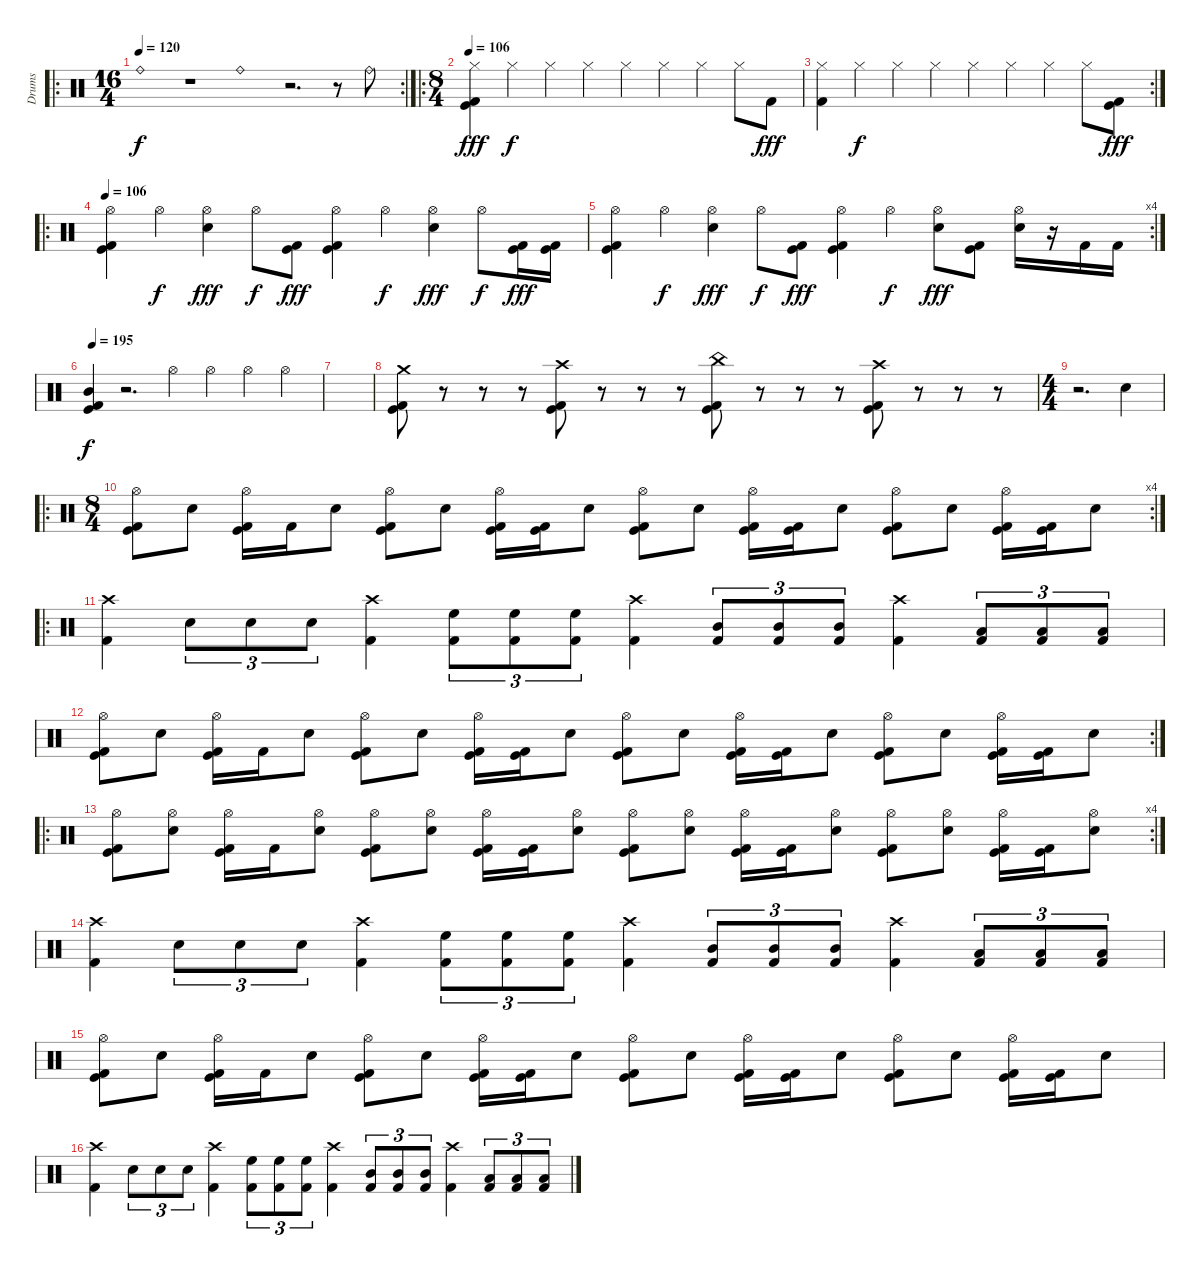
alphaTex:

\track ("Drums" "Drums") {instrument percussion}
\staff {score}
\articulation defaults
\ro
\rc 2
\ts (16 4)
\tempo 120
\tempo 106
\tempo 120
\clef neutral
\ks c "Ride (bell)".1{dy f}
r.1 "Ride (bell)".1 r.2{d} r.8 "Ride (bell)".8 |
\ro
\ts (8 4)
\tempo 106
("Hi-Hat (closed)" "Kick (hit)" "Kick (hit) 2").4{dy fff} "Hi-Hat (closed)".4{dy f} "Hi-Hat (closed)".4 "Hi-Hat (closed)".4 "Hi-Hat (closed)".4 "Hi-Hat (closed)".4 "Hi-Hat (closed)".4 "Hi-Hat (closed)".8 "Kick (hit) 2".8{dy fff} |
\rc 2
("Hi-Hat (closed)" "Kick (hit) 2").4 "Hi-Hat (closed)".4{dy f} "Hi-Hat (closed)".4 "Hi-Hat (closed)".4 "Hi-Hat (closed)".4 "Hi-Hat (closed)".4 "Hi-Hat (closed)".4 "Hi-Hat (closed)".8 ("Kick (hit)" "Kick (hit) 2").8{dy fff} |
\ro
\tempo 106
("Hi-Hat (open)" "Kick (hit)" "Kick (hit) 2").4 "Hi-Hat (open)".4{dy f} ("Electric Snare (hit)" "Hi-Hat (open)").4{dy fff} "Hi-Hat (open)".8{dy f} ("Kick (hit)" "Kick (hit) 2").8{dy fff} ("Hi-Hat (open)" "Kick (hit)" "Kick (hit) 2").4 "Hi-Hat (open)".4{dy f} ("Electric Snare (hit)" "Hi-Hat (open)").4{dy fff} "Hi-Hat (open)".8{dy f} ("Kick (hit) 2" "Kick (hit)").16{dy fff} ("Kick (hit) 2" "Kick (hit)").16 |
\rc 4
("Hi-Hat (open)" "Kick (hit)" "Kick (hit) 2").4 "Hi-Hat (open)".4{dy f} ("Electric Snare (hit)" "Hi-Hat (open)").4{dy fff} "Hi-Hat (open)".8{dy f} ("Kick (hit)" "Kick (hit) 2").8{dy fff} ("Hi-Hat (open)" "Kick (hit)" "Kick (hit) 2").4 "Hi-Hat (open)".4{dy f} ("Electric Snare (hit)" "Hi-Hat (open)").8{dy fff} ("Kick (hit)" "Kick (hit) 2").8 ("Electric Snare (hit)" "Hi-Hat (open)").16 r.16 "Kick (hit) 2".16 "Kick (hit) 2".16 |
\tempo 195
("Mid Tom (hit)" "Kick (hit)" "Kick (hit) 2").4{dy f} r.2{d} "Hi-Hat (open)".4 "Hi-Hat (open)".4 "Hi-Hat (open)".4 "Hi-Hat (open)".4 |
|
("Crash medium (hit)" "Kick (hit) 2" "Kick (hit)").8 r.8 r.8 r.8 ("Crash high (hit)" "Kick (hit) 2" "Kick (hit)").8 r.8 r.8 r.8 ("China (hit)" "Kick (hit) 2" "Kick (hit)").8 r.8 r.8 r.8 ("Crash high (hit)" "Kick (hit) 2" "Kick (hit)").8 r.8 r.8 r.8 |
\ts (4 4)
r.2{d} "Snare (hit) 2".4 |
\ro
\rc 4
\ts (8 4)
("Hi-Hat (open)" "Kick (hit)" "Kick (hit) 2").8 "Electric Snare (hit)".8 ("Hi-Hat (open)" "Kick (hit)" "Kick (hit) 2").16 "Kick (hit) 2".16 "Electric Snare (hit)".8 ("Hi-Hat (open)" "Kick (hit)" "Kick (hit) 2").8 "Electric Snare (hit)".8 ("Hi-Hat (open)" "Kick (hit)" "Kick (hit) 2").16 ("Kick (hit)" "Kick (hit) 2").16 "Electric Snare (hit)".8 ("Hi-Hat (open)" "Kick (hit)" "Kick (hit) 2").8 "Electric Snare (hit)".8 ("Hi-Hat (open)" "Kick (hit)" "Kick (hit) 2").16 ("Kick (hit)" "Kick (hit) 2").16 "Electric Snare (hit)".8 ("Hi-Hat (open)" "Kick (hit)" "Kick (hit) 2").8 "Electric Snare (hit)".8 ("Hi-Hat (open)" "Kick (hit)" "Kick (hit) 2").16 ("Kick (hit)" "Kick (hit) 2").16 "Electric Snare (hit)".8 |
\ro
("Crash high (hit)" "Kick (hit) 2").4 "Electric Snare (hit)".8{tu (3 2)} "Electric Snare (hit)".8{tu (3 2)} "Electric Snare (hit)".8{tu (3 2)} ("Crash high (hit)" "Kick (hit) 2").4 ("High Floor Tom (hit)" "Kick (hit) 2").8{tu (3 2)} ("High Floor Tom (hit)" "Kick (hit) 2").8{tu (3 2)} ("High Floor Tom (hit)" "Kick (hit) 2").8{tu (3 2)} ("Crash high (hit)" "Kick (hit) 2").4 ("Mid Tom (hit)" "Kick (hit) 2").8{tu (3 2)} ("Mid Tom (hit)" "Kick (hit) 2").8{tu (3 2)} ("Mid Tom (hit)" "Kick (hit) 2").8{tu (3 2)} ("Crash high (hit)" "Kick (hit) 2").4 ("Low Tom (hit)" "Kick (hit) 2").8{tu (3 2)} ("Low Tom (hit)" "Kick (hit) 2").8{tu (3 2)} ("Low Tom (hit)" "Kick (hit) 2").8{tu (3 2)} |
\rc 2
("Hi-Hat (open)" "Kick (hit)" "Kick (hit) 2").8 "Electric Snare (hit)".8 ("Hi-Hat (open)" "Kick (hit)" "Kick (hit) 2").16 "Kick (hit) 2".16 "Electric Snare (hit)".8 ("Hi-Hat (open)" "Kick (hit)" "Kick (hit) 2").8 "Electric Snare (hit)".8 ("Hi-Hat (open)" "Kick (hit)" "Kick (hit) 2").16 ("Kick (hit)" "Kick (hit) 2").16 "Electric Snare (hit)".8 ("Hi-Hat (open)" "Kick (hit)" "Kick (hit) 2").8 "Electric Snare (hit)".8 ("Hi-Hat (open)" "Kick (hit)" "Kick (hit) 2").16 ("Kick (hit)" "Kick (hit) 2").16 "Electric Snare (hit)".8 ("Hi-Hat (open)" "Kick (hit)" "Kick (hit) 2").8 "Electric Snare (hit)".8 ("Hi-Hat (open)" "Kick (hit)" "Kick (hit) 2").16 ("Kick (hit)" "Kick (hit) 2").16 "Electric Snare (hit)".8 |
\ro
\rc 4
("Hi-Hat (open)" "Kick (hit)" "Kick (hit) 2").8 ("Hi-Hat (open)" "Electric Snare (hit)").8 ("Hi-Hat (open)" "Kick (hit)" "Kick (hit) 2").16 "Kick (hit) 2".16 ("Hi-Hat (open)" "Electric Snare (hit)").8 ("Hi-Hat (open)" "Kick (hit)" "Kick (hit) 2").8 ("Hi-Hat (open)" "Electric Snare (hit)").8 ("Hi-Hat (open)" "Kick (hit)" "Kick (hit) 2").16 ("Kick (hit)" "Kick (hit) 2").16 ("Hi-Hat (open)" "Electric Snare (hit)").8 ("Hi-Hat (open)" "Kick (hit)" "Kick (hit) 2").8 ("Hi-Hat (open)" "Electric Snare (hit)").8 ("Hi-Hat (open)" "Kick (hit)" "Kick (hit) 2").16 ("Kick (hit)" "Kick (hit) 2").16 ("Hi-Hat (open)" "Electric Snare (hit)").8 ("Hi-Hat (open)" "Kick (hit)" "Kick (hit) 2").8 ("Hi-Hat (open)" "Electric Snare (hit)").8 ("Hi-Hat (open)" "Kick (hit)" "Kick (hit) 2").16 ("Kick (hit)" "Kick (hit) 2").16 ("Hi-Hat (open)" "Electric Snare (hit)").8 |
("Crash high (hit)" "Kick (hit) 2").4 "Electric Snare (hit)".8{tu (3 2)} "Electric Snare (hit)".8{tu (3 2)} "Electric Snare (hit)".8{tu (3 2)} ("Crash high (hit)" "Kick (hit) 2").4 ("High Floor Tom (hit)" "Kick (hit) 2").8{tu (3 2)} ("High Floor Tom (hit)" "Kick (hit) 2").8{tu (3 2)} ("High Floor Tom (hit)" "Kick (hit) 2").8{tu (3 2)} ("Crash high (hit)" "Kick (hit) 2").4 ("Mid Tom (hit)" "Kick (hit) 2").8{tu (3 2)} ("Mid Tom (hit)" "Kick (hit) 2").8{tu (3 2)} ("Mid Tom (hit)" "Kick (hit) 2").8{tu (3 2)} ("Crash high (hit)" "Kick (hit) 2").4 ("Low Tom (hit)" "Kick (hit) 2").8{tu (3 2)} ("Low Tom (hit)" "Kick (hit) 2").8{tu (3 2)} ("Low Tom (hit)" "Kick (hit) 2").8{tu (3 2)} |
("Hi-Hat (open)" "Kick (hit)" "Kick (hit) 2").8 "Electric Snare (hit)".8 ("Hi-Hat (open)" "Kick (hit)" "Kick (hit) 2").16 "Kick (hit) 2".16 "Electric Snare (hit)".8 ("Hi-Hat (open)" "Kick (hit)" "Kick (hit) 2").8 "Electric Snare (hit)".8 ("Hi-Hat (open)" "Kick (hit)" "Kick (hit) 2").16 ("Kick (hit)" "Kick (hit) 2").16 "Electric Snare (hit)".8 ("Hi-Hat (open)" "Kick (hit)" "Kick (hit) 2").8 "Electric Snare (hit)".8 ("Hi-Hat (open)" "Kick (hit)" "Kick (hit) 2").16 ("Kick (hit)" "Kick (hit) 2").16 "Electric Snare (hit)".8 ("Hi-Hat (open)" "Kick (hit)" "Kick (hit) 2").8 "Electric Snare (hit)".8 ("Hi-Hat (open)" "Kick (hit)" "Kick (hit) 2").16 ("Kick (hit)" "Kick (hit) 2").16 "Electric Snare (hit)".8 |
("Crash high (hit)" "Kick (hit) 2").4 "Electric Snare (hit)".8{tu (3 2)} "Electric Snare (hit)".8{tu (3 2)} "Electric Snare (hit)".8{tu (3 2)} ("Crash high (hit)" "Kick (hit) 2").4 ("High Floor Tom (hit)" "Kick (hit) 2").8{tu (3 2)} ("High Floor Tom (hit)" "Kick (hit) 2").8{tu (3 2)} ("High Floor Tom (hit)" "Kick (hit) 2").8{tu (3 2)} ("Crash high (hit)" "Kick (hit) 2").4 ("Mid Tom (hit)" "Kick (hit) 2").8{tu (3 2)} ("Mid Tom (hit)" "Kick (hit) 2").8{tu (3 2)} ("Mid Tom (hit)" "Kick (hit) 2").8{tu (3 2)} ("Crash high (hit)" "Kick (hit) 2").4 ("Low Tom (hit)" "Kick (hit) 2").8{tu (3 2)} ("Low Tom (hit)" "Kick (hit) 2").8{tu (3 2)} ("Low Tom (hit)" "Kick (hit) 2").8{tu (3 2)}
